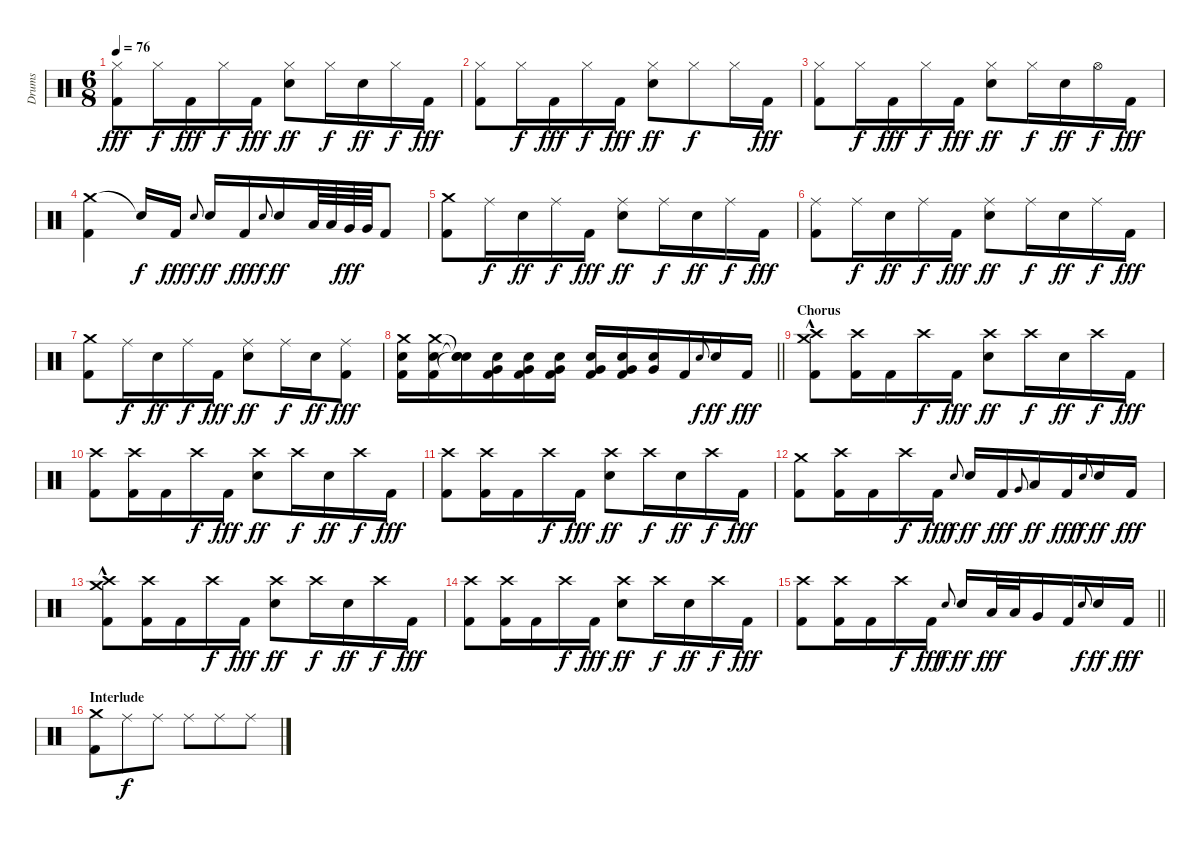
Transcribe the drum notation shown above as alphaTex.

\track ("Drums" "Drums") {instrument percussion}
\staff {score}
\articulation defaults
\ts (6 8)
\tempo 76
\clef neutral
\ks c
("Hi-Hat (closed)" "Kick (hit) 2").8{dy fff} "Hi-Hat (closed)".16{dy f} "Kick (hit) 2".16{dy fff} "Hi-Hat (closed)".16{dy f} "Kick (hit) 2".16{dy fff} ("Hi-Hat (closed)" "Snare (hit) 2").8{dy ff} "Hi-Hat (closed)".16{dy f} "Snare (hit) 2".16{dy ff} "Hi-Hat (closed)".16{dy f} "Kick (hit) 2".16{dy fff} |
("Hi-Hat (closed)" "Kick (hit) 2").8 "Hi-Hat (closed)".16{dy f} "Kick (hit) 2".16{dy fff} "Hi-Hat (closed)".16{dy f} "Kick (hit) 2".16{dy fff} ("Hi-Hat (closed)" "Snare (hit) 2").8{dy ff} "Hi-Hat (closed)".8{dy f} "Hi-Hat (closed)".16 "Kick (hit) 2".16{dy fff} |
("Hi-Hat (closed)" "Kick (hit) 2").8 "Hi-Hat (closed)".16{dy f} "Kick (hit) 2".16{dy fff} "Hi-Hat (closed)".16{dy f} "Kick (hit) 2".16{dy fff} ("Hi-Hat (closed)" "Snare (hit) 2").8{dy ff} "Hi-Hat (closed)".16{dy f} "Snare (hit) 2".16{dy ff} "Hi-Hat (open)".16{dy f} "Kick (hit) 2".16{dy fff} |
("Crash medium (hit)" "Kick (hit) 2").4 "Snare (hit)"{t}.16{dy f} "Kick (hit) 2".16{dy fff} "Snare (hit) 2".8{gr onbeat dy f} "Snare (hit) 2".16{dy ff} "Kick (hit) 2".16{dy fff} "Snare (hit) 2".8{gr onbeat dy f} "Snare (hit) 2".16{dy ff} "Low Tom (hit)".64 "Low Tom (hit)".64 "Very Low Tom (hit)".64{dy fff} "Very Low Tom (hit)".64 "Kick (hit) 2".8 |
("Crash medium (hit)" "Kick (hit) 2").8 "Ride (middle)".16{dy f} "Snare (hit) 2".16{dy ff} "Ride (middle)".16{dy f} "Kick (hit) 2".16{dy fff} ("Ride (middle)" "Snare (hit) 2").8{dy ff} "Ride (middle)".16{dy f} "Snare (hit) 2".16{dy ff} "Ride (middle)".16{dy f} "Kick (hit) 2".16{dy fff} |
("Ride (middle)" "Kick (hit) 2").8 "Ride (middle)".16{dy f} "Snare (hit) 2".16{dy ff} "Ride (middle)".16{dy f} "Kick (hit) 2".16{dy fff} ("Ride (middle)" "Snare (hit) 2").8{dy ff} "Ride (middle)".16{dy f} "Snare (hit) 2".16{dy ff} "Ride (middle)".16{dy f} "Kick (hit) 2".16{dy fff} |
("Crash medium (hit)" "Kick (hit) 2").8 "Ride (middle)".16{dy f} "Snare (hit) 2".16{dy ff} "Ride (middle)".16{dy f} "Kick (hit) 2".16{dy fff} ("Ride (middle)" "Snare (hit) 2").8{dy ff} "Ride (middle)".16{dy f} "Snare (hit) 2".16{dy ff} ("Ride (middle)" "Kick (hit) 2").8{dy fff} |
\barLineRight lightlight
("Crash medium (hit)" "Snare (hit) 2" "Kick (hit) 2").16 ("Crash medium (hit)" "Snare (hit) 2" "Kick (hit) 2").16 ("Snare (hit)"{t} "Snare (hit)"{t} "Snare (hit)"{t}).16{volume 8} ("Snare (hit) 2" "Very Low Tom (hit)" "Kick (hit) 2").16{volume 13} ("Snare (hit) 2" "Very Low Tom (hit)" "Kick (hit) 2").16 ("Snare (hit) 2" "Very Low Tom (hit)" "Kick (hit) 2").16 ("Snare (hit) 2" "Very Low Tom (hit)" "Kick (hit) 2").16 ("Snare (hit) 2" "Very Low Tom (hit)" "Kick (hit) 2").16 ("Snare (hit) 2" "Very Low Tom (hit)").16 "Kick (hit) 2".16 "Snare (hit) 2".8{gr onbeat dy f} "Snare (hit) 2".16{dy ff} "Kick (hit) 2".16{dy fff} |
\section ("" "Chorus")
("Crash medium (hit)"{hac} "Crash high (hit)"{hac} "Kick (hit) 2"{hac}).8 ("Crash high (hit)" "Kick (hit) 2").16 "Kick (hit) 2".16 "Crash high (hit)".16{dy f} "Kick (hit) 2".16{dy fff} ("Crash high (hit)" "Snare (hit) 2").8{dy ff} "Crash high (hit)".16{dy f} "Snare (hit) 2".16{dy ff} "Crash high (hit)".16{dy f} "Kick (hit) 2".16{dy fff} |
("Crash high (hit)" "Kick (hit) 2").8 ("Crash high (hit)" "Kick (hit) 2").16 "Kick (hit) 2".16 "Crash high (hit)".16{dy f} "Kick (hit) 2".16{dy fff} ("Crash high (hit)" "Snare (hit) 2").8{dy ff} "Crash high (hit)".16{dy f} "Snare (hit) 2".16{dy ff} "Crash high (hit)".16{dy f} "Kick (hit) 2".16{dy fff} |
("Crash high (hit)" "Kick (hit) 2").8 ("Crash high (hit)" "Kick (hit) 2").16 "Kick (hit) 2".16 "Crash high (hit)".16{dy f} "Kick (hit) 2".16{dy fff} ("Crash high (hit)" "Snare (hit) 2").8{dy ff} "Crash high (hit)".16{dy f} "Snare (hit) 2".16{dy ff} "Crash high (hit)".16{dy f} "Kick (hit) 2".16{dy fff} |
("Crash medium (hit)" "Kick (hit) 2").8 ("Crash high (hit)" "Kick (hit) 2").16 "Kick (hit) 2".16 "Crash high (hit)".16{dy f} "Kick (hit) 2".16{dy fff} "Snare (hit) 2".8{gr onbeat dy f} "Snare (hit) 2".16{dy ff} "Kick (hit) 2".16{dy fff} "Very Low Tom (hit)".8{gr onbeat} "Low Tom (hit)".16{dy ff} "Kick (hit) 2".16{dy fff} "Snare (hit) 2".8{gr onbeat dy f} "Snare (hit) 2".16{dy ff} "Kick (hit) 2".16{dy fff} |
("Crash medium (hit)"{hac} "Crash high (hit)"{hac} "Kick (hit) 2"{hac}).8 ("Crash high (hit)" "Kick (hit) 2").16 "Kick (hit) 2".16 "Crash high (hit)".16{dy f} "Kick (hit) 2".16{dy fff} ("Crash high (hit)" "Snare (hit) 2").8{dy ff} "Crash high (hit)".16{dy f} "Snare (hit) 2".16{dy ff} "Crash high (hit)".16{dy f} "Kick (hit) 2".16{dy fff} |
("Crash high (hit)" "Kick (hit) 2").8 ("Crash high (hit)" "Kick (hit) 2").16 "Kick (hit) 2".16 "Crash high (hit)".16{dy f} "Kick (hit) 2".16{dy fff} ("Crash high (hit)" "Snare (hit) 2").8{dy ff} "Crash high (hit)".16{dy f} "Snare (hit) 2".16{dy ff} "Crash high (hit)".16{dy f} "Kick (hit) 2".16{dy fff} |
\barLineRight lightlight
("Crash high (hit)" "Kick (hit) 2").8 ("Crash high (hit)" "Kick (hit) 2").16 "Kick (hit) 2".16 "Crash high (hit)".16{dy f} "Kick (hit) 2".16{dy fff} "Snare (hit) 2".8{gr onbeat dy f} "Snare (hit) 2".16{dy ff} "Low Tom (hit)".32{dy fff} "Low Tom (hit)".32 "Very Low Tom (hit)".16 "Kick (hit) 2".16 "Snare (hit) 2".8{gr onbeat dy f} "Snare (hit) 2".16{dy ff} "Kick (hit) 2".16{dy fff} |
\section ("" "Interlude")
("Crash medium (hit)" "Kick (hit) 2").8 "Ride (middle)".8{dy f} "Ride (middle)".8 "Ride (middle)".8 "Ride (middle)".8 "Ride (middle)".8
